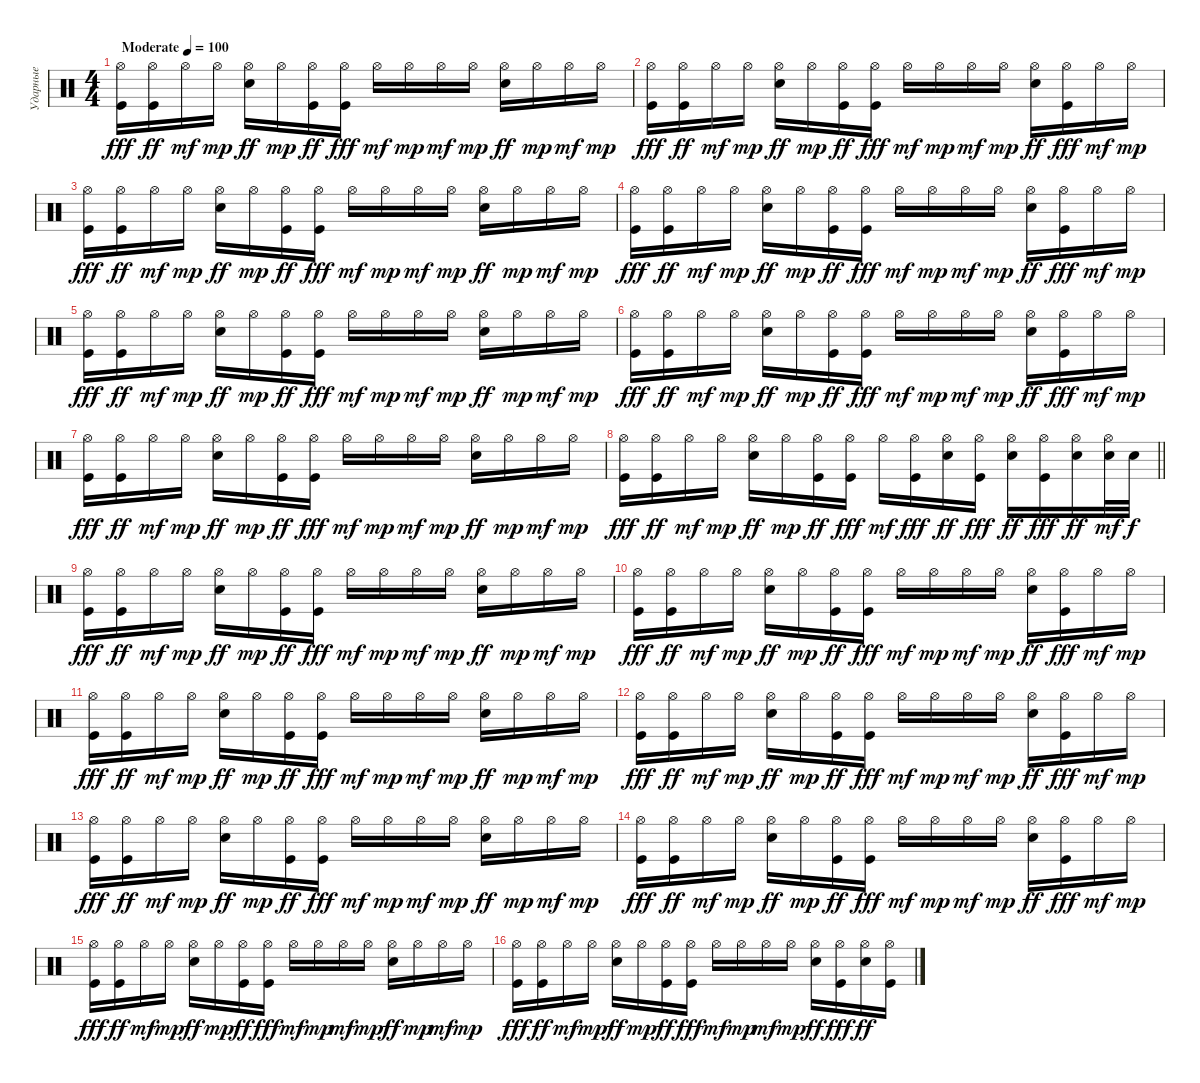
\track ("Ударные" "Ударные") {instrument percussion}
\staff {score}
\articulation defaults
\ts (4 4)
\tempo (100 "Moderate")
\clef neutral
\ks c
("Hi-Hat (open)" "Kick (hit)").16{dy fff} ("Hi-Hat (open)" "Kick (hit)").16{dy ff} "Hi-Hat (open)".16{dy mf} "Hi-Hat (open)".16{dy mp} ("Hi-Hat (open)" "Electric Snare (hit)").16{dy ff} "Hi-Hat (open)".16{dy mp} ("Hi-Hat (open)" "Kick (hit)").16{dy ff} ("Hi-Hat (open)" "Kick (hit)").16{dy fff} "Hi-Hat (open)".16{dy mf} "Hi-Hat (open)".16{dy mp} "Hi-Hat (open)".16{dy mf} "Hi-Hat (open)".16{dy mp} ("Hi-Hat (open)" "Electric Snare (hit)").16{dy ff} "Hi-Hat (open)".16{dy mp} "Hi-Hat (open)".16{dy mf} "Hi-Hat (open)".16{dy mp} |
("Hi-Hat (open)" "Kick (hit)").16{dy fff} ("Hi-Hat (open)" "Kick (hit)").16{dy ff} "Hi-Hat (open)".16{dy mf} "Hi-Hat (open)".16{dy mp} ("Hi-Hat (open)" "Electric Snare (hit)").16{dy ff} "Hi-Hat (open)".16{dy mp} ("Hi-Hat (open)" "Kick (hit)").16{dy ff} ("Hi-Hat (open)" "Kick (hit)").16{dy fff} "Hi-Hat (open)".16{dy mf} "Hi-Hat (open)".16{dy mp} "Hi-Hat (open)".16{dy mf} "Hi-Hat (open)".16{dy mp} ("Hi-Hat (open)" "Electric Snare (hit)").16{dy ff} ("Hi-Hat (open)" "Kick (hit)").16{dy fff} "Hi-Hat (open)".16{dy mf} "Hi-Hat (open)".16{dy mp} |
("Hi-Hat (open)" "Kick (hit)").16{dy fff} ("Hi-Hat (open)" "Kick (hit)").16{dy ff} "Hi-Hat (open)".16{dy mf} "Hi-Hat (open)".16{dy mp} ("Hi-Hat (open)" "Electric Snare (hit)").16{dy ff} "Hi-Hat (open)".16{dy mp} ("Hi-Hat (open)" "Kick (hit)").16{dy ff} ("Hi-Hat (open)" "Kick (hit)").16{dy fff} "Hi-Hat (open)".16{dy mf} "Hi-Hat (open)".16{dy mp} "Hi-Hat (open)".16{dy mf} "Hi-Hat (open)".16{dy mp} ("Hi-Hat (open)" "Electric Snare (hit)").16{dy ff} "Hi-Hat (open)".16{dy mp} "Hi-Hat (open)".16{dy mf} "Hi-Hat (open)".16{dy mp} |
("Hi-Hat (open)" "Kick (hit)").16{dy fff} ("Hi-Hat (open)" "Kick (hit)").16{dy ff} "Hi-Hat (open)".16{dy mf} "Hi-Hat (open)".16{dy mp} ("Hi-Hat (open)" "Electric Snare (hit)").16{dy ff} "Hi-Hat (open)".16{dy mp} ("Hi-Hat (open)" "Kick (hit)").16{dy ff} ("Hi-Hat (open)" "Kick (hit)").16{dy fff} "Hi-Hat (open)".16{dy mf} "Hi-Hat (open)".16{dy mp} "Hi-Hat (open)".16{dy mf} "Hi-Hat (open)".16{dy mp} ("Hi-Hat (open)" "Electric Snare (hit)").16{dy ff} ("Hi-Hat (open)" "Kick (hit)").16{dy fff} "Hi-Hat (open)".16{dy mf} "Hi-Hat (open)".16{dy mp} |
("Hi-Hat (open)" "Kick (hit)").16{dy fff} ("Hi-Hat (open)" "Kick (hit)").16{dy ff} "Hi-Hat (open)".16{dy mf} "Hi-Hat (open)".16{dy mp} ("Hi-Hat (open)" "Electric Snare (hit)").16{dy ff} "Hi-Hat (open)".16{dy mp} ("Hi-Hat (open)" "Kick (hit)").16{dy ff} ("Hi-Hat (open)" "Kick (hit)").16{dy fff} "Hi-Hat (open)".16{dy mf} "Hi-Hat (open)".16{dy mp} "Hi-Hat (open)".16{dy mf} "Hi-Hat (open)".16{dy mp} ("Hi-Hat (open)" "Electric Snare (hit)").16{dy ff} "Hi-Hat (open)".16{dy mp} "Hi-Hat (open)".16{dy mf} "Hi-Hat (open)".16{dy mp} |
("Hi-Hat (open)" "Kick (hit)").16{dy fff} ("Hi-Hat (open)" "Kick (hit)").16{dy ff} "Hi-Hat (open)".16{dy mf} "Hi-Hat (open)".16{dy mp} ("Hi-Hat (open)" "Electric Snare (hit)").16{dy ff} "Hi-Hat (open)".16{dy mp} ("Hi-Hat (open)" "Kick (hit)").16{dy ff} ("Hi-Hat (open)" "Kick (hit)").16{dy fff} "Hi-Hat (open)".16{dy mf} "Hi-Hat (open)".16{dy mp} "Hi-Hat (open)".16{dy mf} "Hi-Hat (open)".16{dy mp} ("Hi-Hat (open)" "Electric Snare (hit)").16{dy ff} ("Hi-Hat (open)" "Kick (hit)").16{dy fff} "Hi-Hat (open)".16{dy mf} "Hi-Hat (open)".16{dy mp} |
("Hi-Hat (open)" "Kick (hit)").16{dy fff} ("Hi-Hat (open)" "Kick (hit)").16{dy ff} "Hi-Hat (open)".16{dy mf} "Hi-Hat (open)".16{dy mp} ("Hi-Hat (open)" "Electric Snare (hit)").16{dy ff} "Hi-Hat (open)".16{dy mp} ("Hi-Hat (open)" "Kick (hit)").16{dy ff} ("Hi-Hat (open)" "Kick (hit)").16{dy fff} "Hi-Hat (open)".16{dy mf} "Hi-Hat (open)".16{dy mp} "Hi-Hat (open)".16{dy mf} "Hi-Hat (open)".16{dy mp} ("Hi-Hat (open)" "Electric Snare (hit)").16{dy ff} "Hi-Hat (open)".16{dy mp} "Hi-Hat (open)".16{dy mf} "Hi-Hat (open)".16{dy mp} |
\barLineRight lightlight
("Hi-Hat (open)" "Kick (hit)").16{dy fff} ("Hi-Hat (open)" "Kick (hit)").16{dy ff} "Hi-Hat (open)".16{dy mf} "Hi-Hat (open)".16{dy mp} ("Hi-Hat (open)" "Electric Snare (hit)").16{dy ff} "Hi-Hat (open)".16{dy mp} ("Hi-Hat (open)" "Kick (hit)").16{dy ff} ("Hi-Hat (open)" "Kick (hit)").16{dy fff} "Hi-Hat (open)".16{dy mf} ("Hi-Hat (open)" "Kick (hit)").16{dy fff} ("Hi-Hat (open)" "Electric Snare (hit)").16{dy ff} ("Hi-Hat (open)" "Kick (hit)").16{dy fff} ("Hi-Hat (open)" "Electric Snare (hit)").16{dy ff} ("Hi-Hat (open)" "Kick (hit)").16{dy fff} ("Hi-Hat (open)" "Electric Snare (hit)").16{dy ff} ("Hi-Hat (open)" "Electric Snare (hit)").32{dy mf} "Electric Snare (hit)".32{dy f} |
\section ("" "")
("Hi-Hat (open)" "Kick (hit)").16{dy fff} ("Hi-Hat (open)" "Kick (hit)").16{dy ff} "Hi-Hat (open)".16{dy mf} "Hi-Hat (open)".16{dy mp} ("Hi-Hat (open)" "Electric Snare (hit)").16{dy ff} "Hi-Hat (open)".16{dy mp} ("Hi-Hat (open)" "Kick (hit)").16{dy ff} ("Hi-Hat (open)" "Kick (hit)").16{dy fff} "Hi-Hat (open)".16{dy mf} "Hi-Hat (open)".16{dy mp} "Hi-Hat (open)".16{dy mf} "Hi-Hat (open)".16{dy mp} ("Hi-Hat (open)" "Electric Snare (hit)").16{dy ff} "Hi-Hat (open)".16{dy mp} "Hi-Hat (open)".16{dy mf} "Hi-Hat (open)".16{dy mp} |
("Hi-Hat (open)" "Kick (hit)").16{dy fff} ("Hi-Hat (open)" "Kick (hit)").16{dy ff} "Hi-Hat (open)".16{dy mf} "Hi-Hat (open)".16{dy mp} ("Hi-Hat (open)" "Electric Snare (hit)").16{dy ff} "Hi-Hat (open)".16{dy mp} ("Hi-Hat (open)" "Kick (hit)").16{dy ff} ("Hi-Hat (open)" "Kick (hit)").16{dy fff} "Hi-Hat (open)".16{dy mf} "Hi-Hat (open)".16{dy mp} "Hi-Hat (open)".16{dy mf} "Hi-Hat (open)".16{dy mp} ("Hi-Hat (open)" "Electric Snare (hit)").16{dy ff} ("Hi-Hat (open)" "Kick (hit)").16{dy fff} "Hi-Hat (open)".16{dy mf} "Hi-Hat (open)".16{dy mp} |
("Hi-Hat (open)" "Kick (hit)").16{dy fff} ("Hi-Hat (open)" "Kick (hit)").16{dy ff} "Hi-Hat (open)".16{dy mf} "Hi-Hat (open)".16{dy mp} ("Hi-Hat (open)" "Electric Snare (hit)").16{dy ff} "Hi-Hat (open)".16{dy mp} ("Hi-Hat (open)" "Kick (hit)").16{dy ff} ("Hi-Hat (open)" "Kick (hit)").16{dy fff} "Hi-Hat (open)".16{dy mf} "Hi-Hat (open)".16{dy mp} "Hi-Hat (open)".16{dy mf} "Hi-Hat (open)".16{dy mp} ("Hi-Hat (open)" "Electric Snare (hit)").16{dy ff} "Hi-Hat (open)".16{dy mp} "Hi-Hat (open)".16{dy mf} "Hi-Hat (open)".16{dy mp} |
("Hi-Hat (open)" "Kick (hit)").16{dy fff} ("Hi-Hat (open)" "Kick (hit)").16{dy ff} "Hi-Hat (open)".16{dy mf} "Hi-Hat (open)".16{dy mp} ("Hi-Hat (open)" "Electric Snare (hit)").16{dy ff} "Hi-Hat (open)".16{dy mp} ("Hi-Hat (open)" "Kick (hit)").16{dy ff} ("Hi-Hat (open)" "Kick (hit)").16{dy fff} "Hi-Hat (open)".16{dy mf} "Hi-Hat (open)".16{dy mp} "Hi-Hat (open)".16{dy mf} "Hi-Hat (open)".16{dy mp} ("Hi-Hat (open)" "Electric Snare (hit)").16{dy ff} ("Hi-Hat (open)" "Kick (hit)").16{dy fff} "Hi-Hat (open)".16{dy mf} "Hi-Hat (open)".16{dy mp} |
("Hi-Hat (open)" "Kick (hit)").16{dy fff} ("Hi-Hat (open)" "Kick (hit)").16{dy ff} "Hi-Hat (open)".16{dy mf} "Hi-Hat (open)".16{dy mp} ("Hi-Hat (open)" "Electric Snare (hit)").16{dy ff} "Hi-Hat (open)".16{dy mp} ("Hi-Hat (open)" "Kick (hit)").16{dy ff} ("Hi-Hat (open)" "Kick (hit)").16{dy fff} "Hi-Hat (open)".16{dy mf} "Hi-Hat (open)".16{dy mp} "Hi-Hat (open)".16{dy mf} "Hi-Hat (open)".16{dy mp} ("Hi-Hat (open)" "Electric Snare (hit)").16{dy ff} "Hi-Hat (open)".16{dy mp} "Hi-Hat (open)".16{dy mf} "Hi-Hat (open)".16{dy mp} |
("Hi-Hat (open)" "Kick (hit)").16{dy fff} ("Hi-Hat (open)" "Kick (hit)").16{dy ff} "Hi-Hat (open)".16{dy mf} "Hi-Hat (open)".16{dy mp} ("Hi-Hat (open)" "Electric Snare (hit)").16{dy ff} "Hi-Hat (open)".16{dy mp} ("Hi-Hat (open)" "Kick (hit)").16{dy ff} ("Hi-Hat (open)" "Kick (hit)").16{dy fff} "Hi-Hat (open)".16{dy mf} "Hi-Hat (open)".16{dy mp} "Hi-Hat (open)".16{dy mf} "Hi-Hat (open)".16{dy mp} ("Hi-Hat (open)" "Electric Snare (hit)").16{dy ff} ("Hi-Hat (open)" "Kick (hit)").16{dy fff} "Hi-Hat (open)".16{dy mf} "Hi-Hat (open)".16{dy mp} |
("Hi-Hat (open)" "Kick (hit)").16{dy fff} ("Hi-Hat (open)" "Kick (hit)").16{dy ff} "Hi-Hat (open)".16{dy mf} "Hi-Hat (open)".16{dy mp} ("Hi-Hat (open)" "Electric Snare (hit)").16{dy ff} "Hi-Hat (open)".16{dy mp} ("Hi-Hat (open)" "Kick (hit)").16{dy ff} ("Hi-Hat (open)" "Kick (hit)").16{dy fff} "Hi-Hat (open)".16{dy mf} "Hi-Hat (open)".16{dy mp} "Hi-Hat (open)".16{dy mf} "Hi-Hat (open)".16{dy mp} ("Hi-Hat (open)" "Electric Snare (hit)").16{dy ff} "Hi-Hat (open)".16{dy mp} "Hi-Hat (open)".16{dy mf} "Hi-Hat (open)".16{dy mp} |
("Hi-Hat (open)" "Kick (hit)").16{dy fff} ("Hi-Hat (open)" "Kick (hit)").16{dy ff} "Hi-Hat (open)".16{dy mf} "Hi-Hat (open)".16{dy mp} ("Hi-Hat (open)" "Electric Snare (hit)").16{dy ff} "Hi-Hat (open)".16{dy mp} ("Hi-Hat (open)" "Kick (hit)").16{dy ff} ("Hi-Hat (open)" "Kick (hit)").16{dy fff} "Hi-Hat (open)".16{dy mf} "Hi-Hat (open)".16{dy mp} "Hi-Hat (open)".16{dy mf} "Hi-Hat (open)".16{dy mp} ("Hi-Hat (open)" "Electric Snare (hit)").16{dy ff} ("Hi-Hat (open)" "Kick (hit)").16{dy fff} ("Hi-Hat (open)" "Electric Snare (hit)").16{dy ff} ("Hi-Hat (open)" "Kick (hit)").16
